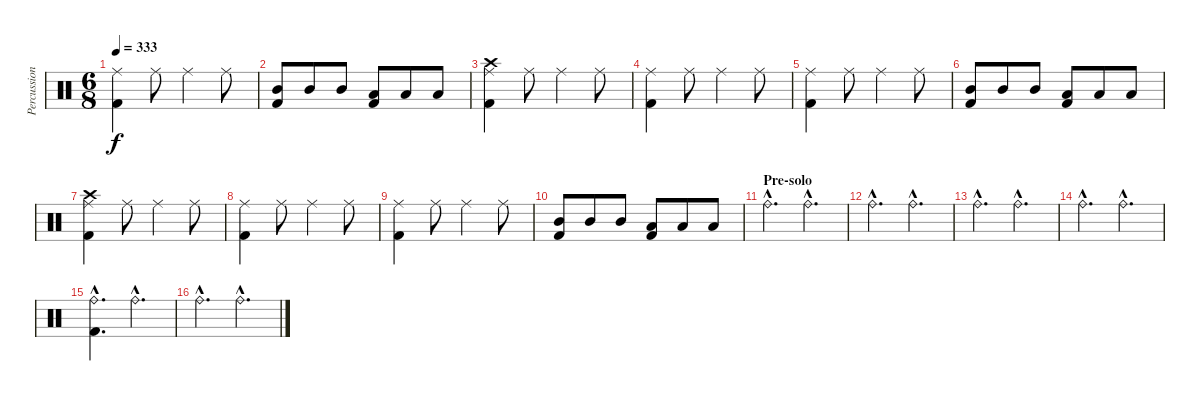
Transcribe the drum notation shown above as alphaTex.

\track ("Percussion" "Percussion") {instrument percussion}
\staff {score}
\articulation defaults
\ts (6 8)
\tempo 333
\clef neutral
\ks c
("Ride (middle)" "Kick (hit) 2").4{dy f} "Ride (middle)".8 "Ride (middle)".4 "Ride (middle)".8 |
("Mid Tom (hit)" "Kick (hit) 2").8 "Mid Tom (hit)".8 "Mid Tom (hit)".8 ("Low Tom (hit)" "Kick (hit) 2").8 "Low Tom (hit)".8 "Low Tom (hit)".8 |
("Crash high (hit)" "Ride (middle)" "Kick (hit) 2").4 "Ride (middle)".8 "Ride (middle)".4 "Ride (middle)".8 |
("Ride (middle)" "Kick (hit) 2").4 "Ride (middle)".8 "Ride (middle)".4 "Ride (middle)".8 |
("Ride (middle)" "Kick (hit) 2").4 "Ride (middle)".8 "Ride (middle)".4 "Ride (middle)".8 |
("Mid Tom (hit)" "Kick (hit) 2").8 "Mid Tom (hit)".8 "Mid Tom (hit)".8 ("Low Tom (hit)" "Kick (hit) 2").8 "Low Tom (hit)".8 "Low Tom (hit)".8 |
("Crash high (hit)" "Ride (middle)" "Kick (hit) 2").4 "Ride (middle)".8 "Ride (middle)".4 "Ride (middle)".8 |
("Ride (middle)" "Kick (hit) 2").4 "Ride (middle)".8 "Ride (middle)".4 "Ride (middle)".8 |
("Ride (middle)" "Kick (hit) 2").4 "Ride (middle)".8 "Ride (middle)".4 "Ride (middle)".8 |
("Mid Tom (hit)" "Kick (hit) 2").8 "Mid Tom (hit)".8 "Mid Tom (hit)".8 ("Low Tom (hit)" "Kick (hit) 2").8 "Low Tom (hit)".8 "Low Tom (hit)".8 |
\section ("" "Pre-solo")
"Ride (bell)"{hac}.4{d} "Ride (bell)"{hac}.4{d} |
"Ride (bell)"{hac}.4{d} "Ride (bell)"{hac}.4{d} |
"Ride (bell)"{hac}.4{d} "Ride (bell)"{hac}.4{d} |
"Ride (bell)"{hac}.4{d} "Ride (bell)"{hac}.4{d} |
("Ride (bell)"{hac} "Kick (hit) 2"{hac}).4{d} "Ride (bell)"{hac}.4{d} |
"Ride (bell)"{hac}.4{d} "Ride (bell)"{hac}.4{d}
